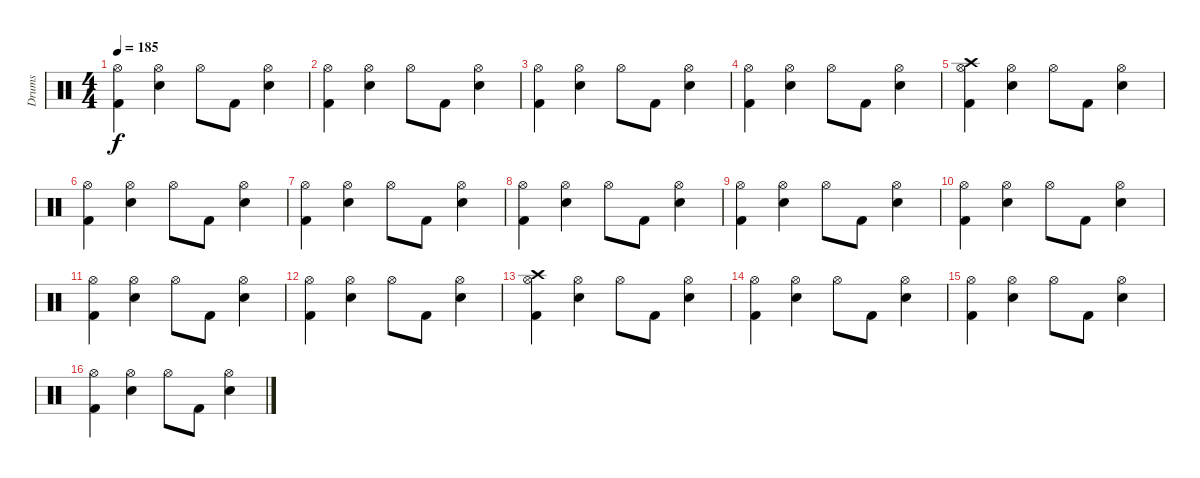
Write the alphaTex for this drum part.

\track ("Drums" "Drums") {instrument percussion}
\staff {score}
\articulation defaults
\ts (4 4)
\tempo 185
\clef neutral
\ks c
("Hi-Hat (open)" "Kick (hit) 2").4{dy f} ("Hi-Hat (open)" "Electric Snare (hit)").4 "Hi-Hat (open)".8 "Kick (hit) 2".8 ("Hi-Hat (open)" "Electric Snare (hit)").4 |
("Hi-Hat (open)" "Kick (hit) 2").4 ("Hi-Hat (open)" "Electric Snare (hit)").4 "Hi-Hat (open)".8 "Kick (hit) 2".8 ("Hi-Hat (open)" "Electric Snare (hit)").4 |
("Hi-Hat (open)" "Kick (hit) 2").4 ("Hi-Hat (open)" "Electric Snare (hit)").4 "Hi-Hat (open)".8 "Kick (hit) 2".8 ("Hi-Hat (open)" "Electric Snare (hit)").4 |
("Hi-Hat (open)" "Kick (hit) 2").4 ("Hi-Hat (open)" "Electric Snare (hit)").4 "Hi-Hat (open)".8 "Kick (hit) 2".8 ("Hi-Hat (open)" "Electric Snare (hit)").4 |
("Hi-Hat (open)" "Crash high (hit)" "Kick (hit) 2").4 ("Hi-Hat (open)" "Electric Snare (hit)").4 "Hi-Hat (open)".8 "Kick (hit) 2".8 ("Hi-Hat (open)" "Electric Snare (hit)").4 |
("Hi-Hat (open)" "Kick (hit) 2").4 ("Hi-Hat (open)" "Electric Snare (hit)").4 "Hi-Hat (open)".8 "Kick (hit) 2".8 ("Hi-Hat (open)" "Electric Snare (hit)").4 |
("Hi-Hat (open)" "Kick (hit) 2").4 ("Hi-Hat (open)" "Electric Snare (hit)").4 "Hi-Hat (open)".8 "Kick (hit) 2".8 ("Hi-Hat (open)" "Electric Snare (hit)").4 |
("Hi-Hat (open)" "Kick (hit) 2").4 ("Hi-Hat (open)" "Electric Snare (hit)").4 "Hi-Hat (open)".8 "Kick (hit) 2".8 ("Hi-Hat (open)" "Electric Snare (hit)").4 |
("Hi-Hat (open)" "Kick (hit) 2").4 ("Hi-Hat (open)" "Electric Snare (hit)").4 "Hi-Hat (open)".8 "Kick (hit) 2".8 ("Hi-Hat (open)" "Electric Snare (hit)").4 |
("Hi-Hat (open)" "Kick (hit) 2").4 ("Hi-Hat (open)" "Electric Snare (hit)").4 "Hi-Hat (open)".8 "Kick (hit) 2".8 ("Hi-Hat (open)" "Electric Snare (hit)").4 |
("Hi-Hat (open)" "Kick (hit) 2").4 ("Hi-Hat (open)" "Electric Snare (hit)").4 "Hi-Hat (open)".8 "Kick (hit) 2".8 ("Hi-Hat (open)" "Electric Snare (hit)").4 |
("Hi-Hat (open)" "Kick (hit) 2").4 ("Hi-Hat (open)" "Electric Snare (hit)").4 "Hi-Hat (open)".8 "Kick (hit) 2".8 ("Hi-Hat (open)" "Electric Snare (hit)").4 |
("Hi-Hat (open)" "Crash high (hit)" "Kick (hit) 2").4 ("Hi-Hat (open)" "Electric Snare (hit)").4 "Hi-Hat (open)".8 "Kick (hit) 2".8 ("Hi-Hat (open)" "Electric Snare (hit)").4 |
("Hi-Hat (open)" "Kick (hit) 2").4 ("Hi-Hat (open)" "Electric Snare (hit)").4 "Hi-Hat (open)".8 "Kick (hit) 2".8 ("Hi-Hat (open)" "Electric Snare (hit)").4 |
("Hi-Hat (open)" "Kick (hit) 2").4 ("Hi-Hat (open)" "Electric Snare (hit)").4 "Hi-Hat (open)".8 "Kick (hit) 2".8 ("Hi-Hat (open)" "Electric Snare (hit)").4 |
("Hi-Hat (open)" "Kick (hit) 2").4 ("Hi-Hat (open)" "Electric Snare (hit)").4 "Hi-Hat (open)".8 "Kick (hit) 2".8 ("Hi-Hat (open)" "Electric Snare (hit)").4
